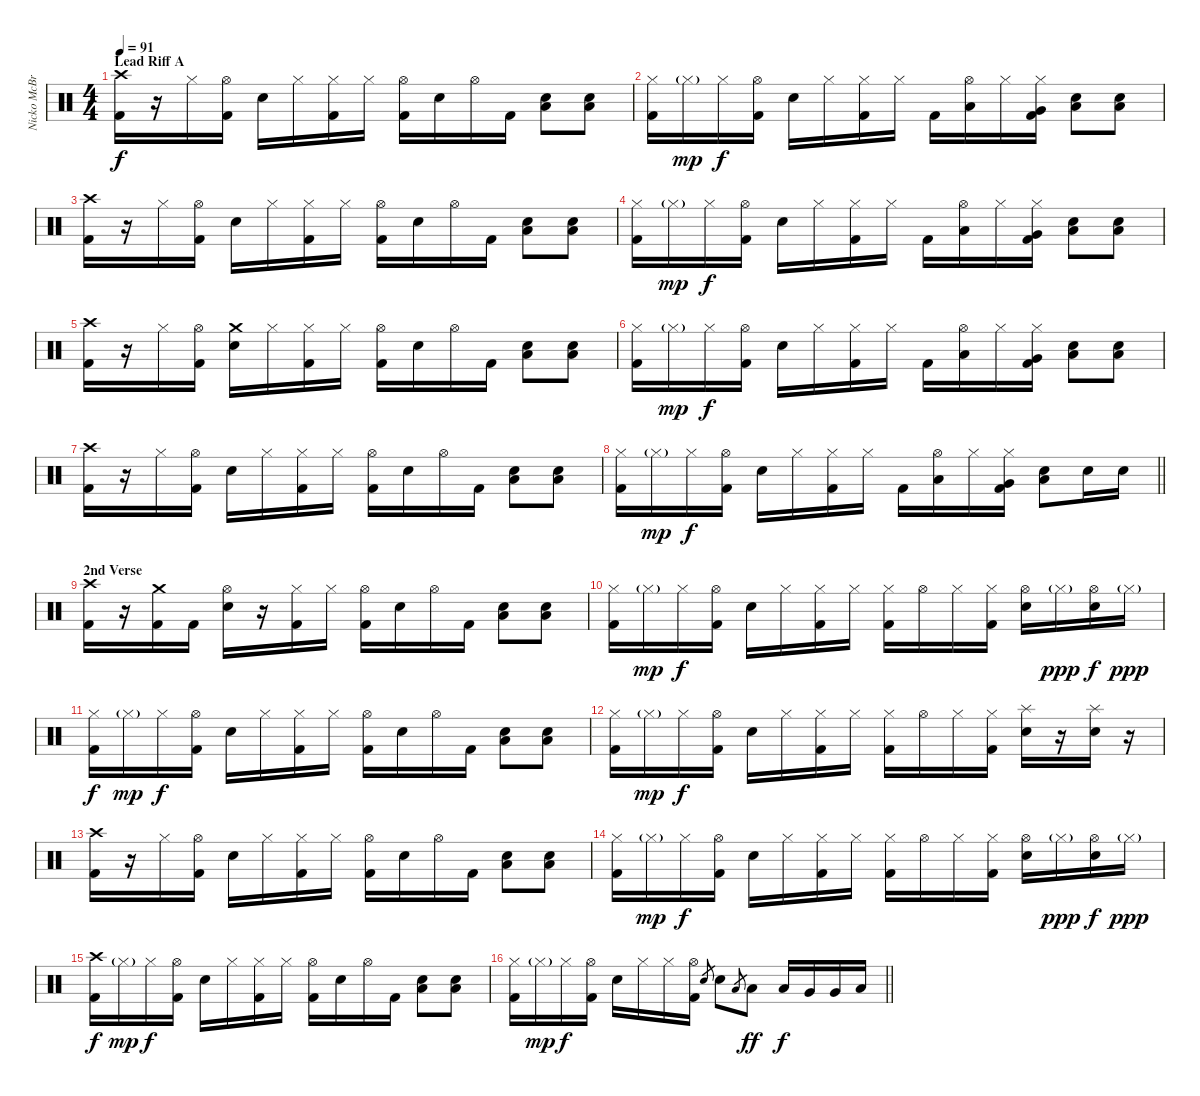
\track ("Nicko McBrian" "Nicko McBr") {instrument percussion}
\staff {score}
\articulation defaults
\ts (4 4)
\section ("" "Lead Riff A")
\tempo 91
\clef neutral
\ks c
("Crash high (hit)" "Kick (hit) 2").16{dy f} r.16 "Hi-Hat (closed)".16 ("Hi-Hat (open)" "Kick (hit) 2").16 "Snare (hit) 2".16 "Hi-Hat (closed)".16 ("Hi-Hat (closed)" "Kick (hit) 2").16 "Hi-Hat (closed)".16 ("Hi-Hat (open)" "Kick (hit) 2").16 "Snare (hit) 2".16 "Hi-Hat (open)".16 "Kick (hit) 2".16 ("Low Floor Tom (hit)" "Snare (hit) 2").8 ("Low Floor Tom (hit)" "Snare (hit) 2").8 |
("Hi-Hat (closed)" "Kick (hit) 2").16 "Hi-Hat (closed)"{g}.16{dy mp} "Hi-Hat (closed)".16{dy f} ("Hi-Hat (open)" "Kick (hit) 2").16 "Snare (hit) 2".16 "Hi-Hat (closed)".16 ("Hi-Hat (closed)" "Kick (hit) 2").16 "Hi-Hat (closed)".16 "Kick (hit) 2".16 ("Low Tom (hit)" "Hi-Hat (open)").16 "Hi-Hat (closed)".16 ("Hi-Hat (closed)" "Very Low Tom (hit)" "Kick (hit) 2").16 ("Low Floor Tom (hit)" "Snare (hit) 2").8 ("Low Floor Tom (hit)" "Snare (hit) 2").8 |
("Crash high (hit)" "Kick (hit) 2").16 r.16 "Hi-Hat (closed)".16 ("Hi-Hat (open)" "Kick (hit) 2").16 "Snare (hit) 2".16 "Hi-Hat (closed)".16 ("Hi-Hat (closed)" "Kick (hit) 2").16 "Hi-Hat (closed)".16 ("Hi-Hat (open)" "Kick (hit) 2").16 "Snare (hit) 2".16 "Hi-Hat (open)".16 "Kick (hit) 2".16 ("Low Floor Tom (hit)" "Snare (hit) 2").8 ("Low Floor Tom (hit)" "Snare (hit) 2").8 |
("Hi-Hat (closed)" "Kick (hit) 2").16 "Hi-Hat (closed)"{g}.16{dy mp} "Hi-Hat (closed)".16{dy f} ("Hi-Hat (open)" "Kick (hit) 2").16 "Snare (hit) 2".16 "Hi-Hat (closed)".16 ("Hi-Hat (closed)" "Kick (hit) 2").16 "Hi-Hat (closed)".16 "Kick (hit) 2".16 ("Low Tom (hit)" "Hi-Hat (open)").16 "Hi-Hat (closed)".16 ("Hi-Hat (closed)" "Very Low Tom (hit)" "Kick (hit) 2").16 ("Low Floor Tom (hit)" "Snare (hit) 2").8 ("Low Floor Tom (hit)" "Snare (hit) 2").8 |
("Crash high (hit)" "Kick (hit) 2").16 r.16 "Hi-Hat (closed)".16 ("Hi-Hat (open)" "Kick (hit) 2").16 ("Crash medium (hit)" "Snare (hit) 2").16 "Hi-Hat (closed)".16 ("Hi-Hat (closed)" "Kick (hit) 2").16 "Hi-Hat (closed)".16 ("Hi-Hat (open)" "Kick (hit) 2").16 "Snare (hit) 2".16 "Hi-Hat (open)".16 "Kick (hit) 2".16 ("Low Floor Tom (hit)" "Snare (hit) 2").8 ("Low Floor Tom (hit)" "Snare (hit) 2").8 |
("Hi-Hat (closed)" "Kick (hit) 2").16 "Hi-Hat (closed)"{g}.16{dy mp} "Hi-Hat (closed)".16{dy f} ("Hi-Hat (open)" "Kick (hit) 2").16 "Snare (hit) 2".16 "Hi-Hat (closed)".16 ("Hi-Hat (closed)" "Kick (hit) 2").16 "Hi-Hat (closed)".16 "Kick (hit) 2".16 ("Low Tom (hit)" "Hi-Hat (open)").16 "Hi-Hat (closed)".16 ("Hi-Hat (closed)" "Very Low Tom (hit)" "Kick (hit) 2").16 ("Low Floor Tom (hit)" "Snare (hit) 2").8 ("Low Floor Tom (hit)" "Snare (hit) 2").8 |
("Crash high (hit)" "Kick (hit) 2").16 r.16 "Hi-Hat (closed)".16 ("Hi-Hat (open)" "Kick (hit) 2").16 "Snare (hit) 2".16 "Hi-Hat (closed)".16 ("Hi-Hat (closed)" "Kick (hit) 2").16 "Hi-Hat (closed)".16 ("Hi-Hat (open)" "Kick (hit) 2").16 "Snare (hit) 2".16 "Hi-Hat (open)".16 "Kick (hit) 2".16 ("Low Floor Tom (hit)" "Snare (hit) 2").8 ("Low Floor Tom (hit)" "Snare (hit) 2").8 |
\barLineRight lightlight
("Hi-Hat (closed)" "Kick (hit) 2").16 "Hi-Hat (closed)"{g}.16{dy mp} "Hi-Hat (closed)".16{dy f} ("Hi-Hat (open)" "Kick (hit) 2").16 "Snare (hit) 2".16 "Hi-Hat (closed)".16 ("Hi-Hat (closed)" "Kick (hit) 2").16 "Hi-Hat (closed)".16 "Kick (hit) 2".16 ("Low Tom (hit)" "Hi-Hat (open)").16 "Hi-Hat (closed)".16 ("Hi-Hat (closed)" "Very Low Tom (hit)" "Kick (hit) 2").16 ("Low Floor Tom (hit)" "Snare (hit) 2").8 "Snare (hit) 2".16 "Snare (hit) 2".16 |
\section ("" "2nd Verse")
("Crash high (hit)" "Kick (hit) 2").16 r.16 ("Crash medium (hit)" "Kick (hit) 2").16 "Kick (hit) 2".16 ("Hi-Hat (open)" "Snare (hit) 2").16 r.16 ("Hi-Hat (closed)" "Kick (hit) 2").16 "Hi-Hat (closed)".16 ("Hi-Hat (open)" "Kick (hit) 2").16 "Snare (hit) 2".16 "Hi-Hat (open)".16 "Kick (hit) 2".16 ("Low Floor Tom (hit)" "Snare (hit) 2").8 ("Low Floor Tom (hit)" "Snare (hit) 2").8 |
("Hi-Hat (closed)" "Kick (hit) 2").16 "Hi-Hat (closed)"{g}.16{dy mp} "Hi-Hat (closed)".16{dy f} ("Hi-Hat (open)" "Kick (hit) 2").16 "Snare (hit) 2".16 "Hi-Hat (closed)".16 ("Hi-Hat (closed)" "Kick (hit) 2").16 "Hi-Hat (closed)".16 ("Hi-Hat (closed)" "Kick (hit) 2").16 "Hi-Hat (open)".16 "Hi-Hat (closed)".16 ("Hi-Hat (closed)" "Kick (hit) 2").16 ("Hi-Hat (open)" "Snare (hit) 2").16 "Hi-Hat (closed)"{g}.16{dy ppp} ("Hi-Hat (open)" "Snare (hit) 2").16{dy f} "Hi-Hat (closed)"{g}.16{dy ppp} |
("Hi-Hat (closed)" "Kick (hit) 2").16{dy f} "Hi-Hat (closed)"{g}.16{dy mp} "Hi-Hat (closed)".16{dy f} ("Hi-Hat (open)" "Kick (hit) 2").16 "Snare (hit) 2".16 "Hi-Hat (closed)".16 ("Hi-Hat (closed)" "Kick (hit) 2").16 "Hi-Hat (closed)".16 ("Hi-Hat (open)" "Kick (hit) 2").16 "Snare (hit) 2".16 "Hi-Hat (open)".16 "Kick (hit) 2".16 ("Low Floor Tom (hit)" "Snare (hit) 2").8 ("Low Floor Tom (hit)" "Snare (hit) 2").8 |
("Hi-Hat (closed)" "Kick (hit) 2").16 "Hi-Hat (closed)"{g}.16{dy mp} "Hi-Hat (closed)".16{dy f} ("Hi-Hat (open)" "Kick (hit) 2").16 "Snare (hit) 2".16 "Hi-Hat (closed)".16 ("Hi-Hat (closed)" "Kick (hit) 2").16 "Hi-Hat (closed)".16 ("Hi-Hat (closed)" "Kick (hit) 2").16 "Hi-Hat (open)".16 "Hi-Hat (closed)".16 ("Hi-Hat (closed)" "Kick (hit) 2").16 ("Splash (hit)" "Snare (hit) 2").16 r.16 ("Splash (hit)" "Snare (hit) 2").16 r.16 |
("Crash high (hit)" "Kick (hit) 2").16 r.16 "Hi-Hat (closed)".16 ("Hi-Hat (open)" "Kick (hit) 2").16 "Snare (hit) 2".16 "Hi-Hat (closed)".16 ("Hi-Hat (closed)" "Kick (hit) 2").16 "Hi-Hat (closed)".16 ("Hi-Hat (open)" "Kick (hit) 2").16 "Snare (hit) 2".16 "Hi-Hat (open)".16 "Kick (hit) 2".16 ("Low Floor Tom (hit)" "Snare (hit) 2").8 ("Low Floor Tom (hit)" "Snare (hit) 2").8 |
("Hi-Hat (closed)" "Kick (hit) 2").16 "Hi-Hat (closed)"{g}.16{dy mp} "Hi-Hat (closed)".16{dy f} ("Hi-Hat (open)" "Kick (hit) 2").16 "Snare (hit) 2".16 "Hi-Hat (closed)".16 ("Hi-Hat (closed)" "Kick (hit) 2").16 "Hi-Hat (closed)".16 ("Hi-Hat (closed)" "Kick (hit) 2").16 "Hi-Hat (open)".16 "Hi-Hat (closed)".16 ("Hi-Hat (closed)" "Kick (hit) 2").16 ("Hi-Hat (open)" "Snare (hit) 2").16 "Hi-Hat (closed)"{g}.16{dy ppp} ("Hi-Hat (open)" "Snare (hit) 2").16{dy f} "Hi-Hat (closed)"{g}.16{dy ppp} |
("Crash high (hit)" "Kick (hit) 2").16{dy f} "Hi-Hat (closed)"{g}.16{dy mp} "Hi-Hat (closed)".16{dy f} ("Hi-Hat (open)" "Kick (hit) 2").16 "Snare (hit) 2".16 "Hi-Hat (closed)".16 ("Hi-Hat (closed)" "Kick (hit) 2").16 "Hi-Hat (closed)".16 ("Hi-Hat (open)" "Kick (hit) 2").16 "Snare (hit) 2".16 "Hi-Hat (open)".16 "Kick (hit) 2".16 ("Low Floor Tom (hit)" "Snare (hit) 2").8 ("Low Floor Tom (hit)" "Snare (hit) 2").8 |
\barLineRight lightlight
("Hi-Hat (closed)" "Kick (hit) 2").16 "Hi-Hat (closed)"{g}.16{dy mp} "Hi-Hat (closed)".16{dy f} ("Hi-Hat (open)" "Kick (hit) 2").16 "Snare (hit) 2".16 "Hi-Hat (closed)".16 "Hi-Hat (closed)".16 ("Hi-Hat (open)" "Kick (hit) 2").16 "Snare (hit) 2".8{gr} "Snare (hit) 2".8 "Low Tom (hit)".8{gr} "Low Tom (hit)".8{dy ff} "Low Tom (hit)".16{dy f} "Very Low Tom (hit)".16 "Very Low Tom (hit)".16 "Low Floor Tom (hit)".16
